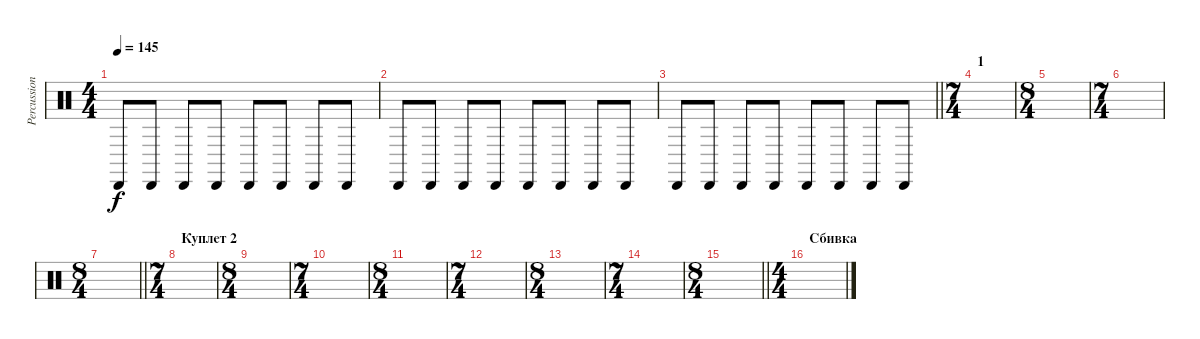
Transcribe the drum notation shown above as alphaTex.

\track ("Percussion" "Percussion") {instrument percussion}
\staff {score}
\articulation defaults
\ts (4 4)
\tempo 145
\clef neutral
\ks c "Cabasa (hit)".8{dy f} "Cabasa (hit)".8 "Cabasa (hit)".8 "Cabasa (hit)".8 "Cabasa (hit)".8 "Cabasa (hit)".8 "Cabasa (hit)".8 "Cabasa (hit)".8
|
"Cabasa (hit)".8 "Cabasa (hit)".8 "Cabasa (hit)".8 "Cabasa (hit)".8 "Cabasa (hit)".8 "Cabasa (hit)".8 "Cabasa (hit)".8 "Cabasa (hit)".8 |
\barLineRight lightlight "Cabasa (hit)".8 "Cabasa (hit)".8 "Cabasa (hit)".8 "Cabasa (hit)".8 "Cabasa (hit)".8 "Cabasa (hit)".8 "Cabasa (hit)".8 "Cabasa (hit)".8
|
\ts (7 4)
\section ("" "1")
|
\ts (8 4)
|
\ts (7 4)
|
\ts (8 4)
\barLineRight lightlight
|
\ts (7 4)
\section ("" "Куплет 2")
|
\ts (8 4)
|
\ts (7 4)
|
\ts (8 4)
|
\ts (7 4)
|
\ts (8 4)
|
\ts (7 4)
|
\ts (8 4)
\barLineRight lightlight
|
\ts (4 4)
\section ("" "Сбивка")
